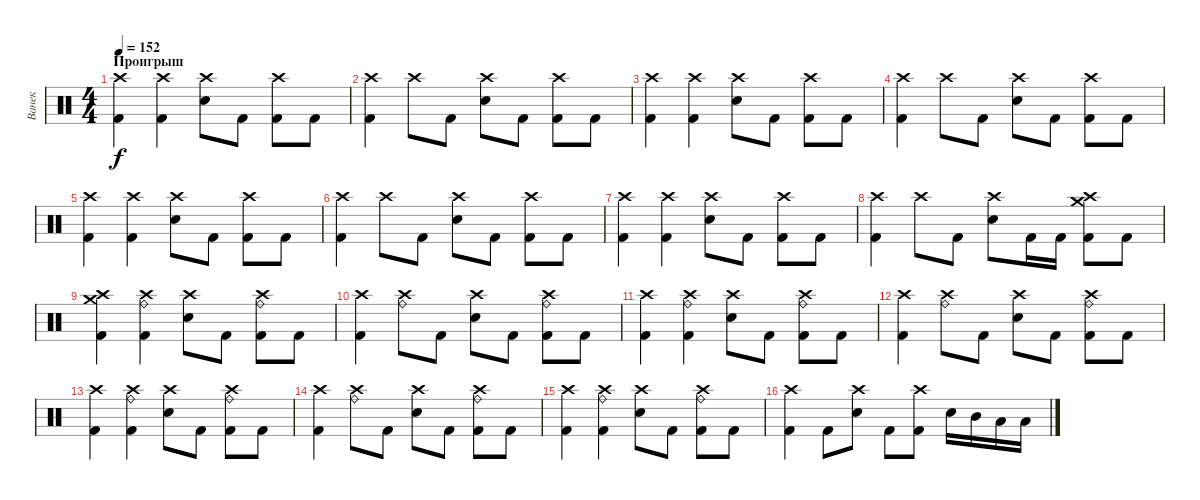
\track ("Ванек" "Ванек") {instrument percussion}
\staff {score}
\articulation defaults
\ts (4 4)
\section ("" "Проигрыш")
\tempo 152
\clef neutral
\ks c
("Crash high (hit)" "Kick (hit) 2").4{dy f} ("Crash high (hit)" "Kick (hit) 2").4 ("Crash high (hit)" "Electric Snare (hit)").8 "Kick (hit) 2".8 ("Crash high (hit)" "Kick (hit) 2").8 "Kick (hit) 2".8 |
("Crash high (hit)" "Kick (hit) 2").4 "Crash high (hit)".8 "Kick (hit) 2".8 ("Crash high (hit)" "Electric Snare (hit)").8 "Kick (hit) 2".8 ("Crash high (hit)" "Kick (hit) 2").8 "Kick (hit) 2".8 |
("Crash high (hit)" "Kick (hit) 2").4 ("Crash high (hit)" "Kick (hit) 2").4 ("Crash high (hit)" "Electric Snare (hit)").8 "Kick (hit) 2".8 ("Crash high (hit)" "Kick (hit) 2").8 "Kick (hit) 2".8 |
("Crash high (hit)" "Kick (hit) 2").4 "Crash high (hit)".8 "Kick (hit) 2".8 ("Crash high (hit)" "Electric Snare (hit)").8 "Kick (hit) 2".8 ("Crash high (hit)" "Kick (hit) 2").8 "Kick (hit) 2".8 |
("Crash high (hit)" "Kick (hit) 2").4 ("Crash high (hit)" "Kick (hit) 2").4 ("Crash high (hit)" "Electric Snare (hit)").8 "Kick (hit) 2".8 ("Crash high (hit)" "Kick (hit) 2").8 "Kick (hit) 2".8 |
("Crash high (hit)" "Kick (hit) 2").4 "Crash high (hit)".8 "Kick (hit) 2".8 ("Crash high (hit)" "Electric Snare (hit)").8 "Kick (hit) 2".8 ("Crash high (hit)" "Kick (hit) 2").8 "Kick (hit) 2".8 |
("Crash high (hit)" "Kick (hit) 2").4 ("Crash high (hit)" "Kick (hit) 2").4 ("Crash high (hit)" "Electric Snare (hit)").8 "Kick (hit) 2".8 ("Crash high (hit)" "Kick (hit) 2").8 "Kick (hit) 2".8 |
("Crash high (hit)" "Kick (hit) 2").4 "Crash high (hit)".8 "Kick (hit) 2".8 ("Crash high (hit)" "Electric Snare (hit)").8 "Kick (hit) 2".16 "Kick (hit) 2".16 ("Crash high (hit)" "Crash medium (hit)" "Kick (hit) 2").8 "Kick (hit) 2".8 |
("Crash high (hit)" "Crash medium (hit)" "Kick (hit) 2").4 ("Ride (bell)" "Crash high (hit)" "Kick (hit) 2").4 ("Crash high (hit)" "Electric Snare (hit)").8 "Kick (hit) 2".8 ("Ride (bell)" "Crash high (hit)" "Kick (hit) 2").8 "Kick (hit) 2".8 |
("Crash high (hit)" "Kick (hit) 2").4 ("Ride (bell)" "Crash high (hit)").8 "Kick (hit) 2".8 ("Crash high (hit)" "Electric Snare (hit)").8 "Kick (hit) 2".8 ("Ride (bell)" "Crash high (hit)" "Kick (hit) 2").8 "Kick (hit) 2".8 |
("Crash high (hit)" "Kick (hit) 2").4 ("Ride (bell)" "Crash high (hit)" "Kick (hit) 2").4 ("Crash high (hit)" "Electric Snare (hit)").8 "Kick (hit) 2".8 ("Ride (bell)" "Crash high (hit)" "Kick (hit) 2").8 "Kick (hit) 2".8 |
("Crash high (hit)" "Kick (hit) 2").4 ("Ride (bell)" "Crash high (hit)").8 "Kick (hit) 2".8 ("Crash high (hit)" "Electric Snare (hit)").8 "Kick (hit) 2".8 ("Ride (bell)" "Crash high (hit)" "Kick (hit) 2").8 "Kick (hit) 2".8 |
("Crash high (hit)" "Kick (hit) 2").4 ("Ride (bell)" "Crash high (hit)" "Kick (hit) 2").4 ("Crash high (hit)" "Electric Snare (hit)").8 "Kick (hit) 2".8 ("Ride (bell)" "Crash high (hit)" "Kick (hit) 2").8 "Kick (hit) 2".8 |
("Crash high (hit)" "Kick (hit) 2").4 ("Ride (bell)" "Crash high (hit)").8 "Kick (hit) 2".8 ("Crash high (hit)" "Electric Snare (hit)").8 "Kick (hit) 2".8 ("Ride (bell)" "Crash high (hit)" "Kick (hit) 2").8 "Kick (hit) 2".8 |
("Crash high (hit)" "Kick (hit) 2").4 ("Ride (bell)" "Crash high (hit)" "Kick (hit) 2").4 ("Crash high (hit)" "Electric Snare (hit)").8 "Kick (hit) 2".8 ("Ride (bell)" "Crash high (hit)" "Kick (hit) 2").8 "Kick (hit) 2".8 |
("Crash high (hit)" "Kick (hit) 2").4 "Kick (hit) 2".8 ("Crash high (hit)" "Electric Snare (hit)").8 "Kick (hit) 2".8 ("Crash high (hit)" "Kick (hit) 2").8 "Electric Snare (hit)".16 "Mid Tom (hit)".16 "Low Tom (hit)".16 "Low Floor Tom (hit)".16
